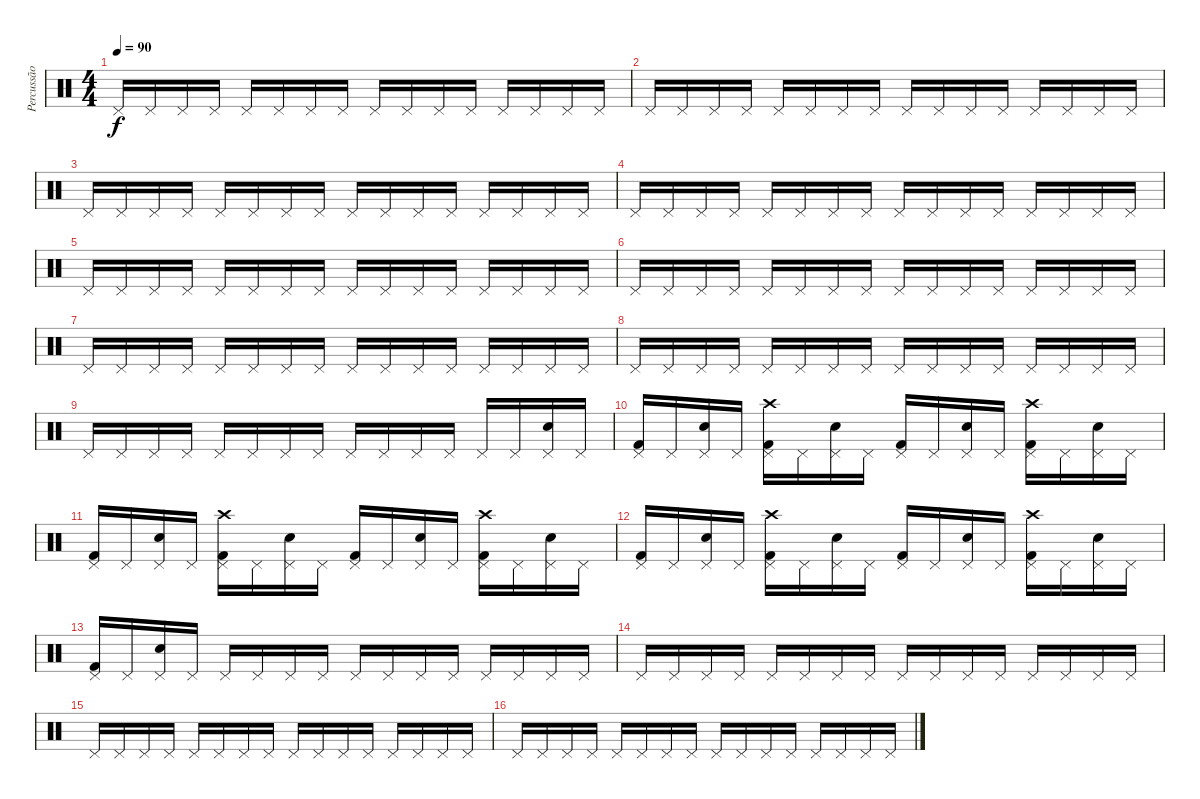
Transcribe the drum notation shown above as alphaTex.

\track ("Percussão" "Percussão") {instrument percussion}
\staff {score}
\articulation defaults
\ts (4 4)
\tempo 90
\clef neutral
\ks c "Pedal Hi-Hat (hit)".16{dy f} "Pedal Hi-Hat (hit)".16 "Pedal Hi-Hat (hit)".16 "Pedal Hi-Hat (hit)".16 "Pedal Hi-Hat (hit)".16 "Pedal Hi-Hat (hit)".16 "Pedal Hi-Hat (hit)".16 "Pedal Hi-Hat (hit)".16 "Pedal Hi-Hat (hit)".16 "Pedal Hi-Hat (hit)".16 "Pedal Hi-Hat (hit)".16 "Pedal Hi-Hat (hit)".16 "Pedal Hi-Hat (hit)".16 "Pedal Hi-Hat (hit)".16 "Pedal Hi-Hat (hit)".16 "Pedal Hi-Hat (hit)".16
|
"Pedal Hi-Hat (hit)".16 "Pedal Hi-Hat (hit)".16 "Pedal Hi-Hat (hit)".16 "Pedal Hi-Hat (hit)".16 "Pedal Hi-Hat (hit)".16 "Pedal Hi-Hat (hit)".16 "Pedal Hi-Hat (hit)".16 "Pedal Hi-Hat (hit)".16 "Pedal Hi-Hat (hit)".16 "Pedal Hi-Hat (hit)".16 "Pedal Hi-Hat (hit)".16 "Pedal Hi-Hat (hit)".16 "Pedal Hi-Hat (hit)".16 "Pedal Hi-Hat (hit)".16 "Pedal Hi-Hat (hit)".16 "Pedal Hi-Hat (hit)".16 |
"Pedal Hi-Hat (hit)".16 "Pedal Hi-Hat (hit)".16 "Pedal Hi-Hat (hit)".16 "Pedal Hi-Hat (hit)".16 "Pedal Hi-Hat (hit)".16 "Pedal Hi-Hat (hit)".16 "Pedal Hi-Hat (hit)".16 "Pedal Hi-Hat (hit)".16 "Pedal Hi-Hat (hit)".16 "Pedal Hi-Hat (hit)".16 "Pedal Hi-Hat (hit)".16 "Pedal Hi-Hat (hit)".16 "Pedal Hi-Hat (hit)".16 "Pedal Hi-Hat (hit)".16 "Pedal Hi-Hat (hit)".16 "Pedal Hi-Hat (hit)".16 |
"Pedal Hi-Hat (hit)".16 "Pedal Hi-Hat (hit)".16 "Pedal Hi-Hat (hit)".16 "Pedal Hi-Hat (hit)".16 "Pedal Hi-Hat (hit)".16 "Pedal Hi-Hat (hit)".16 "Pedal Hi-Hat (hit)".16 "Pedal Hi-Hat (hit)".16 "Pedal Hi-Hat (hit)".16 "Pedal Hi-Hat (hit)".16 "Pedal Hi-Hat (hit)".16 "Pedal Hi-Hat (hit)".16 "Pedal Hi-Hat (hit)".16 "Pedal Hi-Hat (hit)".16 "Pedal Hi-Hat (hit)".16 "Pedal Hi-Hat (hit)".16 |
"Pedal Hi-Hat (hit)".16 "Pedal Hi-Hat (hit)".16 "Pedal Hi-Hat (hit)".16 "Pedal Hi-Hat (hit)".16 "Pedal Hi-Hat (hit)".16 "Pedal Hi-Hat (hit)".16 "Pedal Hi-Hat (hit)".16 "Pedal Hi-Hat (hit)".16 "Pedal Hi-Hat (hit)".16 "Pedal Hi-Hat (hit)".16 "Pedal Hi-Hat (hit)".16 "Pedal Hi-Hat (hit)".16 "Pedal Hi-Hat (hit)".16 "Pedal Hi-Hat (hit)".16 "Pedal Hi-Hat (hit)".16 "Pedal Hi-Hat (hit)".16 |
"Pedal Hi-Hat (hit)".16 "Pedal Hi-Hat (hit)".16 "Pedal Hi-Hat (hit)".16 "Pedal Hi-Hat (hit)".16 "Pedal Hi-Hat (hit)".16 "Pedal Hi-Hat (hit)".16 "Pedal Hi-Hat (hit)".16 "Pedal Hi-Hat (hit)".16 "Pedal Hi-Hat (hit)".16 "Pedal Hi-Hat (hit)".16 "Pedal Hi-Hat (hit)".16 "Pedal Hi-Hat (hit)".16 "Pedal Hi-Hat (hit)".16 "Pedal Hi-Hat (hit)".16 "Pedal Hi-Hat (hit)".16 "Pedal Hi-Hat (hit)".16 |
"Pedal Hi-Hat (hit)".16 "Pedal Hi-Hat (hit)".16 "Pedal Hi-Hat (hit)".16 "Pedal Hi-Hat (hit)".16 "Pedal Hi-Hat (hit)".16 "Pedal Hi-Hat (hit)".16 "Pedal Hi-Hat (hit)".16 "Pedal Hi-Hat (hit)".16 "Pedal Hi-Hat (hit)".16 "Pedal Hi-Hat (hit)".16 "Pedal Hi-Hat (hit)".16 "Pedal Hi-Hat (hit)".16 "Pedal Hi-Hat (hit)".16 "Pedal Hi-Hat (hit)".16 "Pedal Hi-Hat (hit)".16 "Pedal Hi-Hat (hit)".16 |
"Pedal Hi-Hat (hit)".16 "Pedal Hi-Hat (hit)".16 "Pedal Hi-Hat (hit)".16 "Pedal Hi-Hat (hit)".16 "Pedal Hi-Hat (hit)".16 "Pedal Hi-Hat (hit)".16 "Pedal Hi-Hat (hit)".16 "Pedal Hi-Hat (hit)".16 "Pedal Hi-Hat (hit)".16 "Pedal Hi-Hat (hit)".16 "Pedal Hi-Hat (hit)".16 "Pedal Hi-Hat (hit)".16 "Pedal Hi-Hat (hit)".16 "Pedal Hi-Hat (hit)".16 "Pedal Hi-Hat (hit)".16 "Pedal Hi-Hat (hit)".16 |
"Pedal Hi-Hat (hit)".16 "Pedal Hi-Hat (hit)".16 "Pedal Hi-Hat (hit)".16 "Pedal Hi-Hat (hit)".16 "Pedal Hi-Hat (hit)".16 "Pedal Hi-Hat (hit)".16 "Pedal Hi-Hat (hit)".16 "Pedal Hi-Hat (hit)".16 "Pedal Hi-Hat (hit)".16 "Pedal Hi-Hat (hit)".16 "Pedal Hi-Hat (hit)".16 "Pedal Hi-Hat (hit)".16 "Pedal Hi-Hat (hit)".16 "Pedal Hi-Hat (hit)".16 ("Pedal Hi-Hat (hit)" "Electric Snare (hit)").16 "Pedal Hi-Hat (hit)".16 |
("Pedal Hi-Hat (hit)" "Kick (hit) 2").16 "Pedal Hi-Hat (hit)".16 ("Pedal Hi-Hat (hit)" "Electric Snare (hit)").16 "Pedal Hi-Hat (hit)".16 ("Crash high (hit)" "Pedal Hi-Hat (hit)" "Kick (hit) 2").16 "Pedal Hi-Hat (hit)".16 ("Pedal Hi-Hat (hit)" "Electric Snare (hit)").16 "Pedal Hi-Hat (hit)".16 ("Pedal Hi-Hat (hit)" "Kick (hit) 2").16 "Pedal Hi-Hat (hit)".16 ("Pedal Hi-Hat (hit)" "Electric Snare (hit)").16 "Pedal Hi-Hat (hit)".16 ("Crash high (hit)" "Pedal Hi-Hat (hit)" "Kick (hit) 2").16 "Pedal Hi-Hat (hit)".16 ("Pedal Hi-Hat (hit)" "Electric Snare (hit)").16 "Pedal Hi-Hat (hit)".16 |
("Pedal Hi-Hat (hit)" "Kick (hit) 2").16 "Pedal Hi-Hat (hit)".16 ("Pedal Hi-Hat (hit)" "Electric Snare (hit)").16 "Pedal Hi-Hat (hit)".16 ("Crash high (hit)" "Pedal Hi-Hat (hit)" "Kick (hit) 2").16 "Pedal Hi-Hat (hit)".16 ("Pedal Hi-Hat (hit)" "Electric Snare (hit)").16 "Pedal Hi-Hat (hit)".16 ("Pedal Hi-Hat (hit)" "Kick (hit) 2").16 "Pedal Hi-Hat (hit)".16 ("Pedal Hi-Hat (hit)" "Electric Snare (hit)").16 "Pedal Hi-Hat (hit)".16 ("Crash high (hit)" "Pedal Hi-Hat (hit)" "Kick (hit) 2").16 "Pedal Hi-Hat (hit)".16 ("Pedal Hi-Hat (hit)" "Electric Snare (hit)").16 "Pedal Hi-Hat (hit)".16 |
("Pedal Hi-Hat (hit)" "Kick (hit) 2").16 "Pedal Hi-Hat (hit)".16 ("Pedal Hi-Hat (hit)" "Electric Snare (hit)").16 "Pedal Hi-Hat (hit)".16 ("Crash high (hit)" "Pedal Hi-Hat (hit)" "Kick (hit) 2").16 "Pedal Hi-Hat (hit)".16 ("Pedal Hi-Hat (hit)" "Electric Snare (hit)").16 "Pedal Hi-Hat (hit)".16 ("Pedal Hi-Hat (hit)" "Kick (hit) 2").16 "Pedal Hi-Hat (hit)".16 ("Pedal Hi-Hat (hit)" "Electric Snare (hit)").16 "Pedal Hi-Hat (hit)".16 ("Crash high (hit)" "Pedal Hi-Hat (hit)" "Kick (hit) 2").16 "Pedal Hi-Hat (hit)".16 ("Pedal Hi-Hat (hit)" "Electric Snare (hit)").16 "Pedal Hi-Hat (hit)".16 |
("Pedal Hi-Hat (hit)" "Kick (hit) 2").16 "Pedal Hi-Hat (hit)".16 ("Pedal Hi-Hat (hit)" "Electric Snare (hit)").16 "Pedal Hi-Hat (hit)".16 "Pedal Hi-Hat (hit)".16 "Pedal Hi-Hat (hit)".16 "Pedal Hi-Hat (hit)".16 "Pedal Hi-Hat (hit)".16 "Pedal Hi-Hat (hit)".16 "Pedal Hi-Hat (hit)".16 "Pedal Hi-Hat (hit)".16 "Pedal Hi-Hat (hit)".16 "Pedal Hi-Hat (hit)".16 "Pedal Hi-Hat (hit)".16 "Pedal Hi-Hat (hit)".16 "Pedal Hi-Hat (hit)".16 |
"Pedal Hi-Hat (hit)".16 "Pedal Hi-Hat (hit)".16 "Pedal Hi-Hat (hit)".16 "Pedal Hi-Hat (hit)".16 "Pedal Hi-Hat (hit)".16 "Pedal Hi-Hat (hit)".16 "Pedal Hi-Hat (hit)".16 "Pedal Hi-Hat (hit)".16 "Pedal Hi-Hat (hit)".16 "Pedal Hi-Hat (hit)".16 "Pedal Hi-Hat (hit)".16 "Pedal Hi-Hat (hit)".16 "Pedal Hi-Hat (hit)".16 "Pedal Hi-Hat (hit)".16 "Pedal Hi-Hat (hit)".16 "Pedal Hi-Hat (hit)".16 |
"Pedal Hi-Hat (hit)".16 "Pedal Hi-Hat (hit)".16 "Pedal Hi-Hat (hit)".16 "Pedal Hi-Hat (hit)".16 "Pedal Hi-Hat (hit)".16 "Pedal Hi-Hat (hit)".16 "Pedal Hi-Hat (hit)".16 "Pedal Hi-Hat (hit)".16 "Pedal Hi-Hat (hit)".16 "Pedal Hi-Hat (hit)".16 "Pedal Hi-Hat (hit)".16 "Pedal Hi-Hat (hit)".16 "Pedal Hi-Hat (hit)".16 "Pedal Hi-Hat (hit)".16 "Pedal Hi-Hat (hit)".16 "Pedal Hi-Hat (hit)".16 |
"Pedal Hi-Hat (hit)".16 "Pedal Hi-Hat (hit)".16 "Pedal Hi-Hat (hit)".16 "Pedal Hi-Hat (hit)".16 "Pedal Hi-Hat (hit)".16 "Pedal Hi-Hat (hit)".16 "Pedal Hi-Hat (hit)".16 "Pedal Hi-Hat (hit)".16 "Pedal Hi-Hat (hit)".16 "Pedal Hi-Hat (hit)".16 "Pedal Hi-Hat (hit)".16 "Pedal Hi-Hat (hit)".16 "Pedal Hi-Hat (hit)".16 "Pedal Hi-Hat (hit)".16 "Pedal Hi-Hat (hit)".16 "Pedal Hi-Hat (hit)".16
